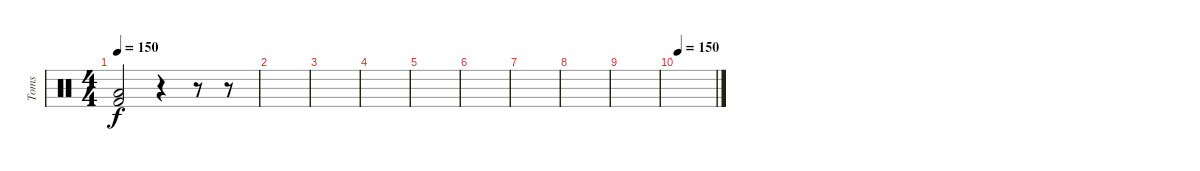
\track ("Toms" "Toms") {instrument percussion}
\staff {score}
\articulation defaults
\ts (4 4)
\tempo 150
\clef neutral
\ks c
("Low Tom (hit)" "Kick (hit) 2").2{dy f} r.4 r.8 r.8 |
|
|
|
|
|
|
|
|
\tempo 150
